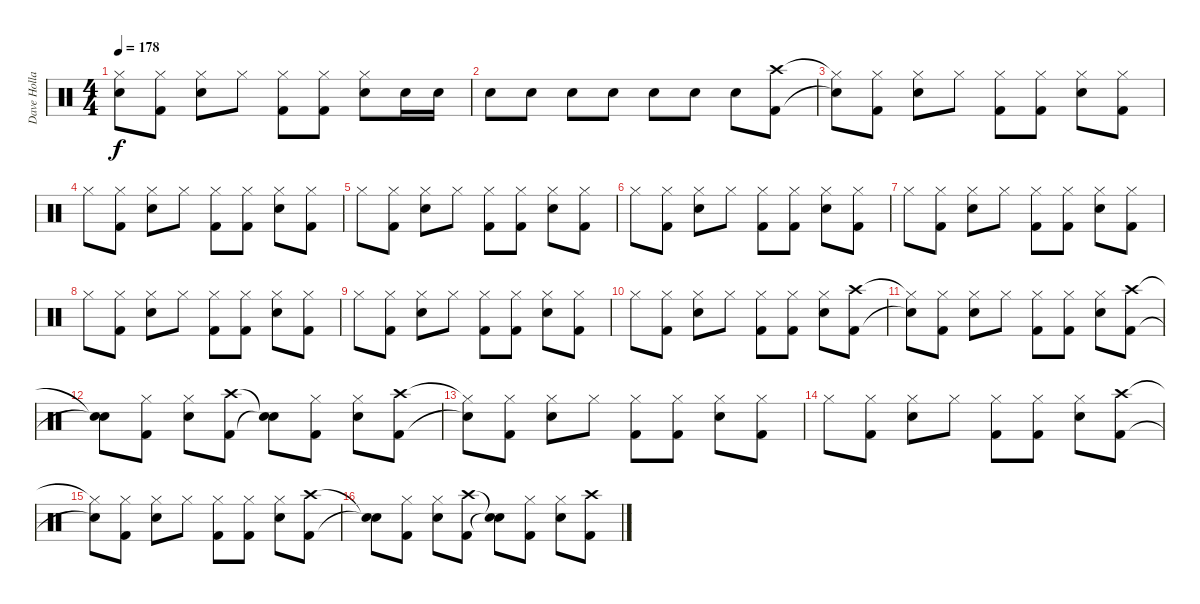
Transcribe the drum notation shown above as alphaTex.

\track ("Dave Holland" "Dave Holla") {instrument percussion}
\staff {score}
\articulation defaults
\ts (4 4)
\tempo 178
\clef neutral
\ks c
("Hi-Hat (closed)"{t} "Snare (hit)"{t}).8{dy f} ("Hi-Hat (closed)" "Kick (hit) 2").8 ("Hi-Hat (closed)" "Snare (hit) 2").8 "Hi-Hat (closed)".8 ("Hi-Hat (closed)" "Kick (hit) 2").8 ("Hi-Hat (closed)" "Kick (hit) 2").8 ("Hi-Hat (closed)" "Snare (hit) 2").8 "Snare (hit) 2".16 "Snare (hit) 2".16 |
"Snare (hit) 2".8 "Snare (hit) 2".8 "Snare (hit) 2".8 "Snare (hit) 2".8 "Snare (hit) 2".8 "Snare (hit) 2".8 "Snare (hit) 2".8 ("Crash high (hit)" "Kick (hit) 2").8 |
("Hi-Hat (closed)"{t} "Snare (hit)"{t}).8 ("Hi-Hat (closed)" "Kick (hit) 2").8 ("Hi-Hat (closed)" "Snare (hit) 2").8 "Hi-Hat (closed)".8 ("Hi-Hat (closed)" "Kick (hit) 2").8 ("Hi-Hat (closed)" "Kick (hit) 2").8 ("Hi-Hat (closed)" "Snare (hit) 2").8 ("Hi-Hat (closed)" "Kick (hit) 2").8 |
"Hi-Hat (closed)".8 ("Hi-Hat (closed)" "Kick (hit) 2").8 ("Hi-Hat (closed)" "Snare (hit) 2").8 "Hi-Hat (closed)".8 ("Hi-Hat (closed)" "Kick (hit) 2").8 ("Hi-Hat (closed)" "Kick (hit) 2").8 ("Hi-Hat (closed)" "Snare (hit) 2").8 ("Hi-Hat (closed)" "Kick (hit) 2").8 |
"Hi-Hat (closed)".8 ("Hi-Hat (closed)" "Kick (hit) 2").8 ("Hi-Hat (closed)" "Snare (hit) 2").8 "Hi-Hat (closed)".8 ("Hi-Hat (closed)" "Kick (hit) 2").8 ("Hi-Hat (closed)" "Kick (hit) 2").8 ("Hi-Hat (closed)" "Snare (hit) 2").8 ("Hi-Hat (closed)" "Kick (hit) 2").8 |
"Hi-Hat (closed)".8 ("Hi-Hat (closed)" "Kick (hit) 2").8 ("Hi-Hat (closed)" "Snare (hit) 2").8 "Hi-Hat (closed)".8 ("Hi-Hat (closed)" "Kick (hit) 2").8 ("Hi-Hat (closed)" "Kick (hit) 2").8 ("Hi-Hat (closed)" "Snare (hit) 2").8 ("Hi-Hat (closed)" "Kick (hit) 2").8 |
"Hi-Hat (closed)".8 ("Hi-Hat (closed)" "Kick (hit) 2").8 ("Hi-Hat (closed)" "Snare (hit) 2").8 "Hi-Hat (closed)".8 ("Hi-Hat (closed)" "Kick (hit) 2").8 ("Hi-Hat (closed)" "Kick (hit) 2").8 ("Hi-Hat (closed)" "Snare (hit) 2").8 ("Hi-Hat (closed)" "Kick (hit) 2").8 |
"Hi-Hat (closed)".8 ("Hi-Hat (closed)" "Kick (hit) 2").8 ("Hi-Hat (closed)" "Snare (hit) 2").8 "Hi-Hat (closed)".8 ("Hi-Hat (closed)" "Kick (hit) 2").8 ("Hi-Hat (closed)" "Kick (hit) 2").8 ("Hi-Hat (closed)" "Snare (hit) 2").8 ("Hi-Hat (closed)" "Kick (hit) 2").8 |
"Hi-Hat (closed)".8 ("Hi-Hat (closed)" "Kick (hit) 2").8 ("Hi-Hat (closed)" "Snare (hit) 2").8 "Hi-Hat (closed)".8 ("Hi-Hat (closed)" "Kick (hit) 2").8 ("Hi-Hat (closed)" "Kick (hit) 2").8 ("Hi-Hat (closed)" "Snare (hit) 2").8 ("Hi-Hat (closed)" "Kick (hit) 2").8 |
"Hi-Hat (closed)".8 ("Hi-Hat (closed)" "Kick (hit) 2").8 ("Hi-Hat (closed)" "Snare (hit) 2").8 "Hi-Hat (closed)".8 ("Hi-Hat (closed)" "Kick (hit) 2").8 ("Hi-Hat (closed)" "Kick (hit) 2").8 ("Hi-Hat (closed)" "Snare (hit) 2").8 ("Crash high (hit)" "Kick (hit) 2").8 |
("Hi-Hat (closed)"{t} "Snare (hit)"{t}).8 ("Hi-Hat (closed)" "Kick (hit) 2").8 ("Hi-Hat (closed)" "Snare (hit) 2").8 "Hi-Hat (closed)".8 ("Hi-Hat (closed)" "Kick (hit) 2").8 ("Hi-Hat (closed)" "Kick (hit) 2").8 ("Hi-Hat (closed)" "Snare (hit) 2").8 ("Crash high (hit)" "Kick (hit) 2").8 |
("Snare (hit)"{t} "Snare (hit)"{t}).8 ("Hi-Hat (closed)" "Kick (hit) 2").8 ("Hi-Hat (closed)" "Snare (hit) 2").8 ("Crash high (hit)" "Kick (hit) 2").8 ("Snare (hit)"{t} "Snare (hit)"{t}).8 ("Hi-Hat (closed)" "Kick (hit) 2").8 ("Hi-Hat (closed)" "Snare (hit) 2").8 ("Crash high (hit)" "Kick (hit) 2").8 |
("Hi-Hat (closed)"{t} "Snare (hit)"{t}).8 ("Hi-Hat (closed)" "Kick (hit) 2").8 ("Hi-Hat (closed)" "Snare (hit) 2").8 "Hi-Hat (closed)".8 ("Hi-Hat (closed)" "Kick (hit) 2").8 ("Hi-Hat (closed)" "Kick (hit) 2").8 ("Hi-Hat (closed)" "Snare (hit) 2").8 ("Hi-Hat (closed)" "Kick (hit) 2").8 |
"Hi-Hat (closed)".8 ("Hi-Hat (closed)" "Kick (hit) 2").8 ("Hi-Hat (closed)" "Snare (hit) 2").8 "Hi-Hat (closed)".8 ("Hi-Hat (closed)" "Kick (hit) 2").8 ("Hi-Hat (closed)" "Kick (hit) 2").8 ("Hi-Hat (closed)" "Snare (hit) 2").8 ("Crash high (hit)" "Kick (hit) 2").8 |
("Hi-Hat (closed)"{t} "Snare (hit)"{t}).8 ("Hi-Hat (closed)" "Kick (hit) 2").8 ("Hi-Hat (closed)" "Snare (hit) 2").8 "Hi-Hat (closed)".8 ("Hi-Hat (closed)" "Kick (hit) 2").8 ("Hi-Hat (closed)" "Kick (hit) 2").8 ("Hi-Hat (closed)" "Snare (hit) 2").8 ("Crash high (hit)" "Kick (hit) 2").8 |
("Snare (hit)"{t} "Snare (hit)"{t}).8 ("Hi-Hat (closed)" "Kick (hit) 2").8 ("Hi-Hat (closed)" "Snare (hit) 2").8 ("Crash high (hit)" "Kick (hit) 2").8 ("Snare (hit)"{t} "Snare (hit)"{t}).8 ("Hi-Hat (closed)" "Kick (hit) 2").8 ("Hi-Hat (closed)" "Snare (hit) 2").8 ("Crash high (hit)" "Kick (hit) 2").8
